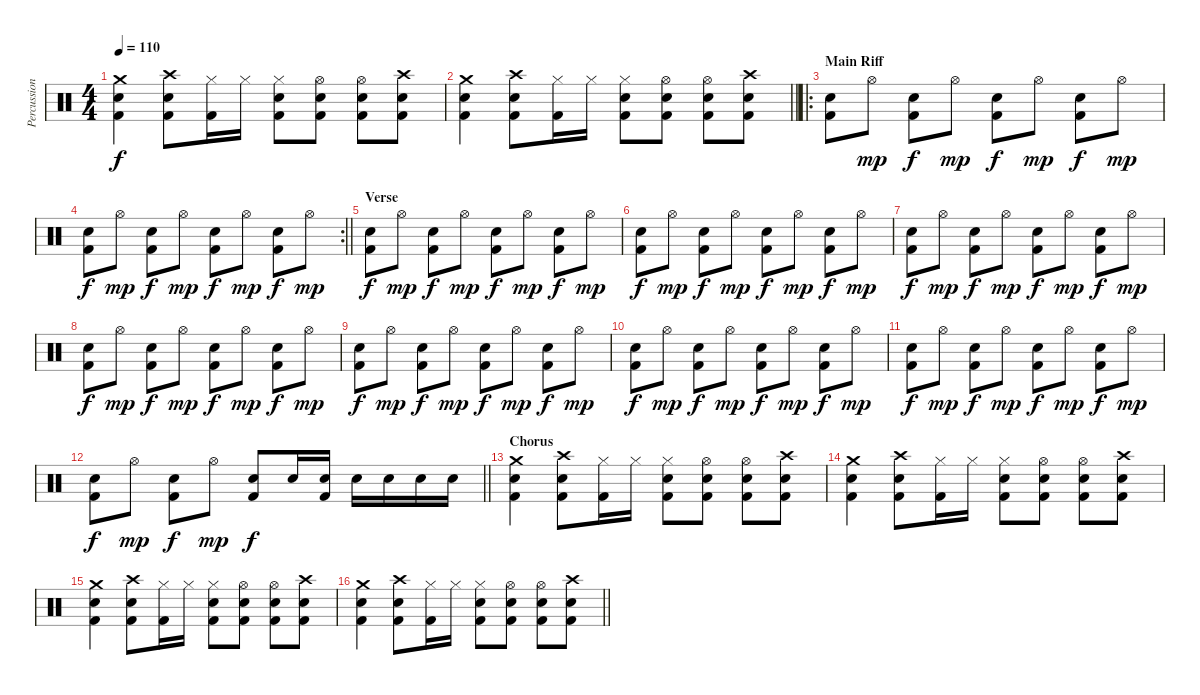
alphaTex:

\track ("Percussion" "Percussion") {instrument percussion}
\staff {score}
\articulation defaults
\ts (4 4)
\tempo 110
\clef neutral
\ks c
("Crash medium (hit)" "Snare (hit) 2" "Kick (hit) 2").4{dy f} ("Crash high (hit)" "Snare (hit) 2" "Kick (hit) 2").8 ("Hi-Hat (closed)" "Kick (hit) 2").16 "Hi-Hat (closed)".16 ("Snare (hit) 2" "Hi-Hat (closed)" "Kick (hit) 2").8 ("Hi-Hat (open)" "Snare (hit) 2" "Kick (hit) 2").8 ("Hi-Hat (open)" "Snare (hit) 2" "Kick (hit) 2").8 ("Crash high (hit)" "Snare (hit) 2" "Kick (hit) 2").8 |
\barLineRight lightlight
("Crash medium (hit)" "Snare (hit) 2" "Kick (hit) 2").4 ("Crash high (hit)" "Snare (hit) 2" "Kick (hit) 2").8 ("Hi-Hat (closed)" "Kick (hit) 2").16 "Hi-Hat (closed)".16 ("Snare (hit) 2" "Hi-Hat (closed)" "Kick (hit) 2").8 ("Hi-Hat (open)" "Snare (hit) 2" "Kick (hit) 2").8 ("Hi-Hat (open)" "Snare (hit) 2" "Kick (hit) 2").8 ("Crash high (hit)" "Snare (hit) 2" "Kick (hit) 2").8 |
\ro
\section ("" "Main Riff")
("Snare (hit) 2" "Kick (hit) 2").8 "Hi-Hat (open)".8{dy mp} ("Snare (hit) 2" "Kick (hit) 2").8{dy f} "Hi-Hat (open)".8{dy mp} ("Snare (hit) 2" "Kick (hit) 2").8{dy f} "Hi-Hat (open)".8{dy mp} ("Snare (hit) 2" "Kick (hit) 2").8{dy f} "Hi-Hat (open)".8{dy mp} |
\rc 2
\barLineRight lightlight
("Snare (hit) 2" "Kick (hit) 2").8{dy f} "Hi-Hat (open)".8{dy mp} ("Snare (hit) 2" "Kick (hit) 2").8{dy f} "Hi-Hat (open)".8{dy mp} ("Snare (hit) 2" "Kick (hit) 2").8{dy f} "Hi-Hat (open)".8{dy mp} ("Snare (hit) 2" "Kick (hit) 2").8{dy f} "Hi-Hat (open)".8{dy mp} |
\section ("" "Verse")
("Snare (hit) 2" "Kick (hit) 2").8{dy f} "Hi-Hat (open)".8{dy mp} ("Snare (hit) 2" "Kick (hit) 2").8{dy f} "Hi-Hat (open)".8{dy mp} ("Snare (hit) 2" "Kick (hit) 2").8{dy f} "Hi-Hat (open)".8{dy mp} ("Snare (hit) 2" "Kick (hit) 2").8{dy f} "Hi-Hat (open)".8{dy mp} |
("Snare (hit) 2" "Kick (hit) 2").8{dy f} "Hi-Hat (open)".8{dy mp} ("Snare (hit) 2" "Kick (hit) 2").8{dy f} "Hi-Hat (open)".8{dy mp} ("Snare (hit) 2" "Kick (hit) 2").8{dy f} "Hi-Hat (open)".8{dy mp} ("Snare (hit) 2" "Kick (hit) 2").8{dy f} "Hi-Hat (open)".8{dy mp} |
("Snare (hit) 2" "Kick (hit) 2").8{dy f} "Hi-Hat (open)".8{dy mp} ("Snare (hit) 2" "Kick (hit) 2").8{dy f} "Hi-Hat (open)".8{dy mp} ("Snare (hit) 2" "Kick (hit) 2").8{dy f} "Hi-Hat (open)".8{dy mp} ("Snare (hit) 2" "Kick (hit) 2").8{dy f} "Hi-Hat (open)".8{dy mp} |
("Snare (hit) 2" "Kick (hit) 2").8{dy f} "Hi-Hat (open)".8{dy mp} ("Snare (hit) 2" "Kick (hit) 2").8{dy f} "Hi-Hat (open)".8{dy mp} ("Snare (hit) 2" "Kick (hit) 2").8{dy f} "Hi-Hat (open)".8{dy mp} ("Snare (hit) 2" "Kick (hit) 2").8{dy f} "Hi-Hat (open)".8{dy mp} |
("Snare (hit) 2" "Kick (hit) 2").8{dy f} "Hi-Hat (open)".8{dy mp} ("Snare (hit) 2" "Kick (hit) 2").8{dy f} "Hi-Hat (open)".8{dy mp} ("Snare (hit) 2" "Kick (hit) 2").8{dy f} "Hi-Hat (open)".8{dy mp} ("Snare (hit) 2" "Kick (hit) 2").8{dy f} "Hi-Hat (open)".8{dy mp} |
("Snare (hit) 2" "Kick (hit) 2").8{dy f} "Hi-Hat (open)".8{dy mp} ("Snare (hit) 2" "Kick (hit) 2").8{dy f} "Hi-Hat (open)".8{dy mp} ("Snare (hit) 2" "Kick (hit) 2").8{dy f} "Hi-Hat (open)".8{dy mp} ("Snare (hit) 2" "Kick (hit) 2").8{dy f} "Hi-Hat (open)".8{dy mp} |
("Snare (hit) 2" "Kick (hit) 2").8{dy f} "Hi-Hat (open)".8{dy mp} ("Snare (hit) 2" "Kick (hit) 2").8{dy f} "Hi-Hat (open)".8{dy mp} ("Snare (hit) 2" "Kick (hit) 2").8{dy f} "Hi-Hat (open)".8{dy mp} ("Snare (hit) 2" "Kick (hit) 2").8{dy f} "Hi-Hat (open)".8{dy mp} |
\barLineRight lightlight
("Snare (hit) 2" "Kick (hit) 2").8{dy f} "Hi-Hat (open)".8{dy mp} ("Snare (hit) 2" "Kick (hit) 2").8{dy f} "Hi-Hat (open)".8{dy mp} ("Snare (hit) 2" "Kick (hit) 2").8{dy f} "Snare (hit) 2".16 ("Snare (hit) 2" "Kick (hit) 2").16 "Snare (hit) 2".16 "Snare (hit) 2".16 "Snare (hit) 2".16 "Snare (hit) 2".16 |
\section ("" "Chorus")
("Crash medium (hit)" "Snare (hit) 2" "Kick (hit) 2").4 ("Crash high (hit)" "Snare (hit) 2" "Kick (hit) 2").8 ("Hi-Hat (closed)" "Kick (hit) 2").16 "Hi-Hat (closed)".16 ("Snare (hit) 2" "Hi-Hat (closed)" "Kick (hit) 2").8 ("Hi-Hat (open)" "Snare (hit) 2" "Kick (hit) 2").8 ("Hi-Hat (open)" "Snare (hit) 2" "Kick (hit) 2").8 ("Crash high (hit)" "Snare (hit) 2" "Kick (hit) 2").8 |
("Crash medium (hit)" "Snare (hit) 2" "Kick (hit) 2").4 ("Crash high (hit)" "Snare (hit) 2" "Kick (hit) 2").8 ("Hi-Hat (closed)" "Kick (hit) 2").16 "Hi-Hat (closed)".16 ("Snare (hit) 2" "Hi-Hat (closed)" "Kick (hit) 2").8 ("Hi-Hat (open)" "Snare (hit) 2" "Kick (hit) 2").8 ("Hi-Hat (open)" "Snare (hit) 2" "Kick (hit) 2").8 ("Crash high (hit)" "Snare (hit) 2" "Kick (hit) 2").8 |
("Crash medium (hit)" "Snare (hit) 2" "Kick (hit) 2").4 ("Crash high (hit)" "Snare (hit) 2" "Kick (hit) 2").8 ("Hi-Hat (closed)" "Kick (hit) 2").16 "Hi-Hat (closed)".16 ("Snare (hit) 2" "Hi-Hat (closed)" "Kick (hit) 2").8 ("Hi-Hat (open)" "Snare (hit) 2" "Kick (hit) 2").8 ("Hi-Hat (open)" "Snare (hit) 2" "Kick (hit) 2").8 ("Crash high (hit)" "Snare (hit) 2" "Kick (hit) 2").8 |
\barLineRight lightlight
("Crash medium (hit)" "Snare (hit) 2" "Kick (hit) 2").4 ("Crash high (hit)" "Snare (hit) 2" "Kick (hit) 2").8 ("Hi-Hat (closed)" "Kick (hit) 2").16 "Hi-Hat (closed)".16 ("Snare (hit) 2" "Hi-Hat (closed)" "Kick (hit) 2").8 ("Hi-Hat (open)" "Snare (hit) 2" "Kick (hit) 2").8 ("Hi-Hat (open)" "Snare (hit) 2" "Kick (hit) 2").8 ("Crash high (hit)" "Snare (hit) 2" "Kick (hit) 2").8
